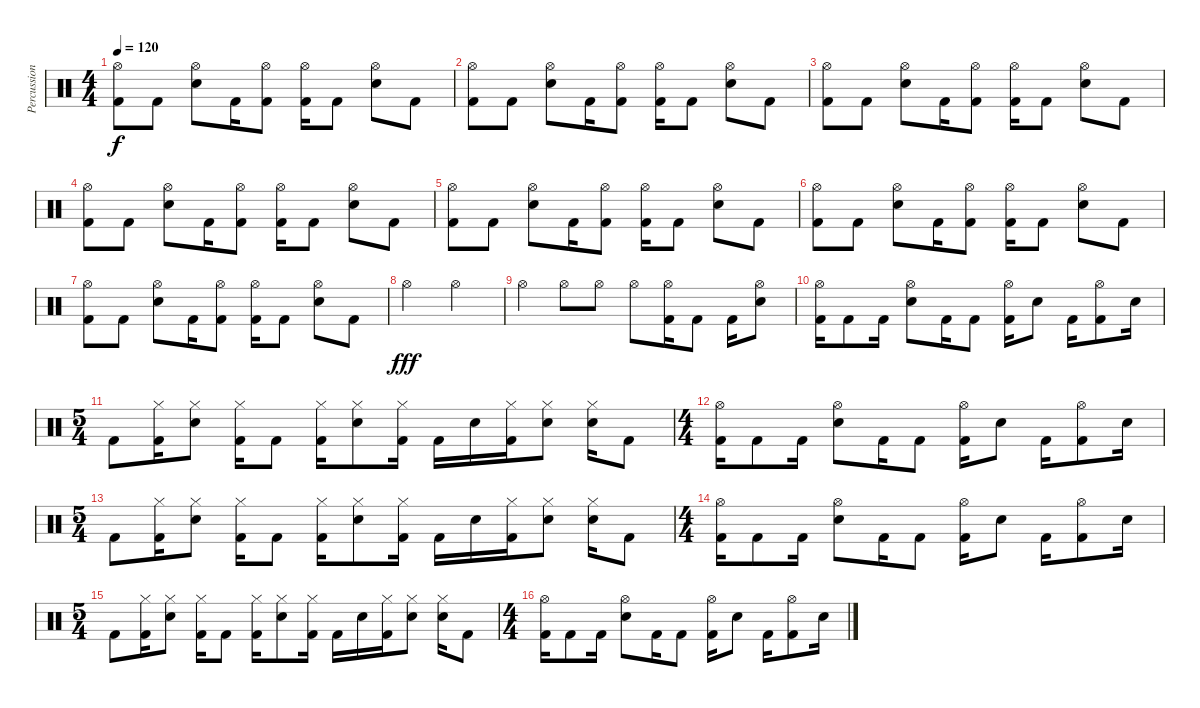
\track ("Percussion" "Percussion") {instrument percussion}
\staff {score}
\articulation defaults
\ts (4 4)
\tempo 120
\clef neutral
\ks c
("Hi-Hat (open)" "Kick (hit) 2").8{dy f} "Kick (hit) 2".8 ("Hi-Hat (open)" "Snare (hit) 2").8 "Kick (hit) 2".16 ("Hi-Hat (open)" "Kick (hit) 2").8 ("Hi-Hat (open)" "Kick (hit) 2").16 "Kick (hit) 2".8 ("Hi-Hat (open)" "Snare (hit) 2").8 "Kick (hit) 2".8 |
("Hi-Hat (open)" "Kick (hit) 2").8 "Kick (hit) 2".8 ("Hi-Hat (open)" "Snare (hit) 2").8 "Kick (hit) 2".16 ("Hi-Hat (open)" "Kick (hit) 2").8 ("Hi-Hat (open)" "Kick (hit) 2").16 "Kick (hit) 2".8 ("Hi-Hat (open)" "Snare (hit) 2").8 "Kick (hit) 2".8 |
("Hi-Hat (open)" "Kick (hit) 2").8 "Kick (hit) 2".8 ("Hi-Hat (open)" "Snare (hit) 2").8 "Kick (hit) 2".16 ("Hi-Hat (open)" "Kick (hit) 2").8 ("Hi-Hat (open)" "Kick (hit) 2").16 "Kick (hit) 2".8 ("Hi-Hat (open)" "Snare (hit) 2").8 "Kick (hit) 2".8 |
("Hi-Hat (open)" "Kick (hit) 2").8 "Kick (hit) 2".8 ("Hi-Hat (open)" "Snare (hit) 2").8 "Kick (hit) 2".16 ("Hi-Hat (open)" "Kick (hit) 2").8 ("Hi-Hat (open)" "Kick (hit) 2").16 "Kick (hit) 2".8 ("Hi-Hat (open)" "Snare (hit) 2").8 "Kick (hit) 2".8 |
("Hi-Hat (open)" "Kick (hit) 2").8 "Kick (hit) 2".8 ("Hi-Hat (open)" "Snare (hit) 2").8 "Kick (hit) 2".16 ("Hi-Hat (open)" "Kick (hit) 2").8 ("Hi-Hat (open)" "Kick (hit) 2").16 "Kick (hit) 2".8 ("Hi-Hat (open)" "Snare (hit) 2").8 "Kick (hit) 2".8 |
("Hi-Hat (open)" "Kick (hit) 2").8 "Kick (hit) 2".8 ("Hi-Hat (open)" "Snare (hit) 2").8 "Kick (hit) 2".16 ("Hi-Hat (open)" "Kick (hit) 2").8 ("Hi-Hat (open)" "Kick (hit) 2").16 "Kick (hit) 2".8 ("Hi-Hat (open)" "Snare (hit) 2").8 "Kick (hit) 2".8 |
("Hi-Hat (open)" "Kick (hit) 2").8 "Kick (hit) 2".8 ("Hi-Hat (open)" "Snare (hit) 2").8 "Kick (hit) 2".16 ("Hi-Hat (open)" "Kick (hit) 2").8 ("Hi-Hat (open)" "Kick (hit) 2").16 "Kick (hit) 2".8 ("Hi-Hat (open)" "Snare (hit) 2").8 "Kick (hit) 2".8 |
"Hi-Hat (open)".2{dy fff} "Hi-Hat (open)".2 |
"Hi-Hat (open)".4 "Hi-Hat (open)".8 "Hi-Hat (open)".8 "Hi-Hat (open)".8 ("Hi-Hat (open)" "Kick (hit) 2").16 "Kick (hit) 2".8 "Kick (hit) 2".16 ("Hi-Hat (open)" "Snare (hit) 2").8 |
("Hi-Hat (open)" "Kick (hit) 2").16 "Kick (hit) 2".8 "Kick (hit) 2".16 ("Hi-Hat (open)" "Snare (hit) 2").8 "Kick (hit) 2".16 "Kick (hit) 2".8 ("Hi-Hat (open)" "Kick (hit) 2").16 "Snare (hit) 2".8 "Kick (hit) 2".16 ("Hi-Hat (open)" "Kick (hit) 2").8 "Snare (hit) 2".16 |
\ts (5 4)
"Kick (hit) 2".8 ("Hi-Hat (closed)" "Kick (hit) 2").16 ("Hi-Hat (closed)" "Snare (hit) 2").8 ("Hi-Hat (closed)" "Kick (hit) 2").16 "Kick (hit) 2".8 ("Hi-Hat (closed)" "Kick (hit) 2").16 ("Hi-Hat (closed)" "Snare (hit) 2").8 ("Hi-Hat (closed)" "Kick (hit) 2").16 "Kick (hit) 2".16 "Snare (hit) 2".16 ("Hi-Hat (closed)" "Kick (hit) 2").16 ("Hi-Hat (closed)" "Snare (hit) 2").8 ("Hi-Hat (closed)" "Snare (hit) 2").16 "Kick (hit) 2".8 |
\ts (4 4)
("Hi-Hat (open)" "Kick (hit) 2").16 "Kick (hit) 2".8 "Kick (hit) 2".16 ("Hi-Hat (open)" "Snare (hit) 2").8 "Kick (hit) 2".16 "Kick (hit) 2".8 ("Hi-Hat (open)" "Kick (hit) 2").16 "Snare (hit) 2".8 "Kick (hit) 2".16 ("Hi-Hat (open)" "Kick (hit) 2").8 "Snare (hit) 2".16 |
\ts (5 4)
"Kick (hit) 2".8 ("Hi-Hat (closed)" "Kick (hit) 2").16 ("Hi-Hat (closed)" "Snare (hit) 2").8 ("Hi-Hat (closed)" "Kick (hit) 2").16 "Kick (hit) 2".8 ("Hi-Hat (closed)" "Kick (hit) 2").16 ("Hi-Hat (closed)" "Snare (hit) 2").8 ("Hi-Hat (closed)" "Kick (hit) 2").16 "Kick (hit) 2".16 "Snare (hit) 2".16 ("Hi-Hat (closed)" "Kick (hit) 2").16 ("Hi-Hat (closed)" "Snare (hit) 2").8 ("Hi-Hat (closed)" "Snare (hit) 2").16 "Kick (hit) 2".8 |
\ts (4 4)
("Hi-Hat (open)" "Kick (hit) 2").16 "Kick (hit) 2".8 "Kick (hit) 2".16 ("Hi-Hat (open)" "Snare (hit) 2").8 "Kick (hit) 2".16 "Kick (hit) 2".8 ("Hi-Hat (open)" "Kick (hit) 2").16 "Snare (hit) 2".8 "Kick (hit) 2".16 ("Hi-Hat (open)" "Kick (hit) 2").8 "Snare (hit) 2".16 |
\ts (5 4)
"Kick (hit) 2".8 ("Hi-Hat (closed)" "Kick (hit) 2").16 ("Hi-Hat (closed)" "Snare (hit) 2").8 ("Hi-Hat (closed)" "Kick (hit) 2").16 "Kick (hit) 2".8 ("Hi-Hat (closed)" "Kick (hit) 2").16 ("Hi-Hat (closed)" "Snare (hit) 2").8 ("Hi-Hat (closed)" "Kick (hit) 2").16 "Kick (hit) 2".16 "Snare (hit) 2".16 ("Hi-Hat (closed)" "Kick (hit) 2").16 ("Hi-Hat (closed)" "Snare (hit) 2").8 ("Hi-Hat (closed)" "Snare (hit) 2").16 "Kick (hit) 2".8 |
\ts (4 4)
("Hi-Hat (open)" "Kick (hit) 2").16 "Kick (hit) 2".8 "Kick (hit) 2".16 ("Hi-Hat (open)" "Snare (hit) 2").8 "Kick (hit) 2".16 "Kick (hit) 2".8 ("Hi-Hat (open)" "Kick (hit) 2").16 "Snare (hit) 2".8 "Kick (hit) 2".16 ("Hi-Hat (open)" "Kick (hit) 2").8 "Snare (hit) 2".16
